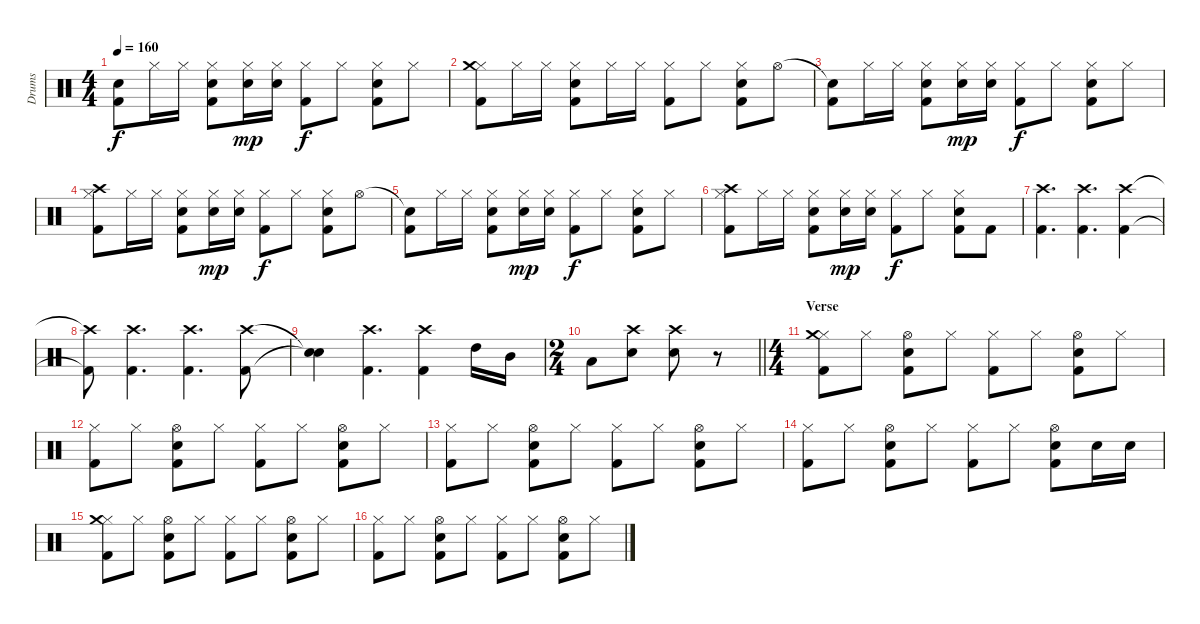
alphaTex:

\track ("Drums" "Drums") {instrument percussion}
\staff {score}
\articulation defaults
\ts (4 4)
\tempo 160
\clef neutral
\ks c
("Snare (hit)"{t} "Kick (hit) 2").8{dy f} "Hi-Hat (closed)".16 "Hi-Hat (closed)".16 ("Hi-Hat (closed)" "Snare (hit) 2" "Kick (hit) 2").8 ("Hi-Hat (closed)" "Snare (hit) 2").16{dy mp} ("Hi-Hat (closed)" "Snare (hit) 2").16 ("Hi-Hat (closed)" "Kick (hit) 2").8{dy f} "Hi-Hat (closed)".8 ("Hi-Hat (closed)" "Snare (hit) 2" "Kick (hit) 2").8 "Hi-Hat (closed)".8 |
("Hi-Hat (closed)" "Crash medium (hit)" "Kick (hit) 2").8 "Hi-Hat (closed)".16 "Hi-Hat (closed)".16 ("Hi-Hat (closed)" "Snare (hit) 2" "Kick (hit) 2").8 "Hi-Hat (closed)".16 "Hi-Hat (closed)".16 ("Hi-Hat (closed)" "Kick (hit) 2").8 "Hi-Hat (closed)".8 ("Hi-Hat (closed)" "Snare (hit) 2" "Kick (hit) 2").8 "Hi-Hat (open)".8 |
("Snare (hit)"{t} "Kick (hit) 2").8 "Hi-Hat (closed)".16 "Hi-Hat (closed)".16 ("Hi-Hat (closed)" "Snare (hit) 2" "Kick (hit) 2").8 ("Hi-Hat (closed)" "Snare (hit) 2").16{dy mp} ("Hi-Hat (closed)" "Snare (hit) 2").16 ("Hi-Hat (closed)" "Kick (hit) 2").8{dy f} "Hi-Hat (closed)".8 ("Hi-Hat (closed)" "Snare (hit) 2" "Kick (hit) 2").8 "Hi-Hat (closed)".8 |
("Hi-Hat (closed)" "Crash high (hit)" "Kick (hit) 2").8 "Hi-Hat (closed)".16 "Hi-Hat (closed)".16 ("Hi-Hat (closed)" "Snare (hit) 2" "Kick (hit) 2").8 ("Hi-Hat (closed)" "Snare (hit) 2").16{dy mp} ("Hi-Hat (closed)" "Snare (hit) 2").16 ("Hi-Hat (closed)" "Kick (hit) 2").8{dy f} "Hi-Hat (closed)".8 ("Hi-Hat (closed)" "Snare (hit) 2" "Kick (hit) 2").8 "Hi-Hat (open)".8 |
("Snare (hit)"{t} "Kick (hit) 2").8 "Hi-Hat (closed)".16 "Hi-Hat (closed)".16 ("Hi-Hat (closed)" "Snare (hit) 2" "Kick (hit) 2").8 ("Hi-Hat (closed)" "Snare (hit) 2").16{dy mp} ("Hi-Hat (closed)" "Snare (hit) 2").16 ("Hi-Hat (closed)" "Kick (hit) 2").8{dy f} "Hi-Hat (closed)".8 ("Hi-Hat (closed)" "Snare (hit) 2" "Kick (hit) 2").8 "Hi-Hat (closed)".8 |
("Hi-Hat (closed)" "Crash high (hit)" "Kick (hit) 2").8 "Hi-Hat (closed)".16 "Hi-Hat (closed)".16 ("Hi-Hat (closed)" "Snare (hit) 2" "Kick (hit) 2").8 ("Hi-Hat (closed)" "Snare (hit) 2").16{dy mp} ("Hi-Hat (closed)" "Snare (hit) 2").16 ("Hi-Hat (closed)" "Kick (hit) 2").8{dy f} "Hi-Hat (closed)".8 ("Hi-Hat (closed)" "Snare (hit) 2" "Kick (hit) 2").8 "Kick (hit) 2".8 |
("Crash high (hit)" "Kick (hit) 2").4{d} ("Crash high (hit)" "Kick (hit) 2").4{d} ("Crash high (hit)" "Kick (hit) 2").4 |
("Crash high (hit)"{t} "Kick (hit) 2"{t}).8 ("Crash high (hit)" "Kick (hit) 2").4{d} ("Crash high (hit)" "Kick (hit) 2").4{d} ("Crash high (hit)" "Kick (hit) 2").8 |
("Snare (hit)"{t} "Snare (hit)"{t}).4 ("Crash high (hit)" "Kick (hit) 2").4{d} ("Crash high (hit)" "Kick (hit) 2").4 "High Tom (hit)".16 "Mid Tom (hit)".16 |
\ts (2 4)
\barLineRight lightlight "Low Tom (hit)".8
("Crash high (hit)" "Snare (hit) 2").8 ("Crash high (hit)" "Snare (hit) 2").8 r.8 |
\ts (4 4)
\section ("" "Verse")
("Hi-Hat (closed)" "Crash medium (hit)" "Kick (hit) 2").8 "Hi-Hat (closed)".8 ("Hi-Hat (open)" "Snare (hit) 2" "Kick (hit) 2").8 "Hi-Hat (closed)".8 ("Hi-Hat (closed)" "Kick (hit) 2").8 "Hi-Hat (closed)".8 ("Hi-Hat (open)" "Snare (hit) 2" "Kick (hit) 2").8 "Hi-Hat (closed)".8 |
("Hi-Hat (closed)" "Kick (hit) 2").8 "Hi-Hat (closed)".8 ("Hi-Hat (open)" "Snare (hit) 2" "Kick (hit) 2").8 "Hi-Hat (closed)".8 ("Hi-Hat (closed)" "Kick (hit) 2").8 "Hi-Hat (closed)".8 ("Hi-Hat (open)" "Snare (hit) 2" "Kick (hit) 2").8 "Hi-Hat (closed)".8 |
("Hi-Hat (closed)" "Kick (hit) 2").8 "Hi-Hat (closed)".8 ("Hi-Hat (open)" "Snare (hit) 2" "Kick (hit) 2").8 "Hi-Hat (closed)".8 ("Hi-Hat (closed)" "Kick (hit) 2").8 "Hi-Hat (closed)".8 ("Hi-Hat (open)" "Snare (hit) 2" "Kick (hit) 2").8 "Hi-Hat (closed)".8 |
("Hi-Hat (closed)" "Kick (hit) 2").8 "Hi-Hat (closed)".8 ("Hi-Hat (open)" "Snare (hit) 2" "Kick (hit) 2").8 "Hi-Hat (closed)".8 ("Hi-Hat (closed)" "Kick (hit) 2").8 "Hi-Hat (closed)".8 ("Hi-Hat (open)" "Snare (hit) 2" "Kick (hit) 2").8 "Snare (hit) 2".16 "Snare (hit) 2".16 |
("Hi-Hat (closed)" "Crash medium (hit)" "Kick (hit) 2").8 "Hi-Hat (closed)".8 ("Hi-Hat (open)" "Snare (hit) 2" "Kick (hit) 2").8 "Hi-Hat (closed)".8 ("Hi-Hat (closed)" "Kick (hit) 2").8 "Hi-Hat (closed)".8 ("Hi-Hat (open)" "Snare (hit) 2" "Kick (hit) 2").8 "Hi-Hat (closed)".8 |
("Hi-Hat (closed)" "Kick (hit) 2").8 "Hi-Hat (closed)".8 ("Hi-Hat (open)" "Snare (hit) 2" "Kick (hit) 2").8 "Hi-Hat (closed)".8 ("Hi-Hat (closed)" "Kick (hit) 2").8 "Hi-Hat (closed)".8 ("Hi-Hat (open)" "Snare (hit) 2" "Kick (hit) 2").8 "Hi-Hat (closed)".8
